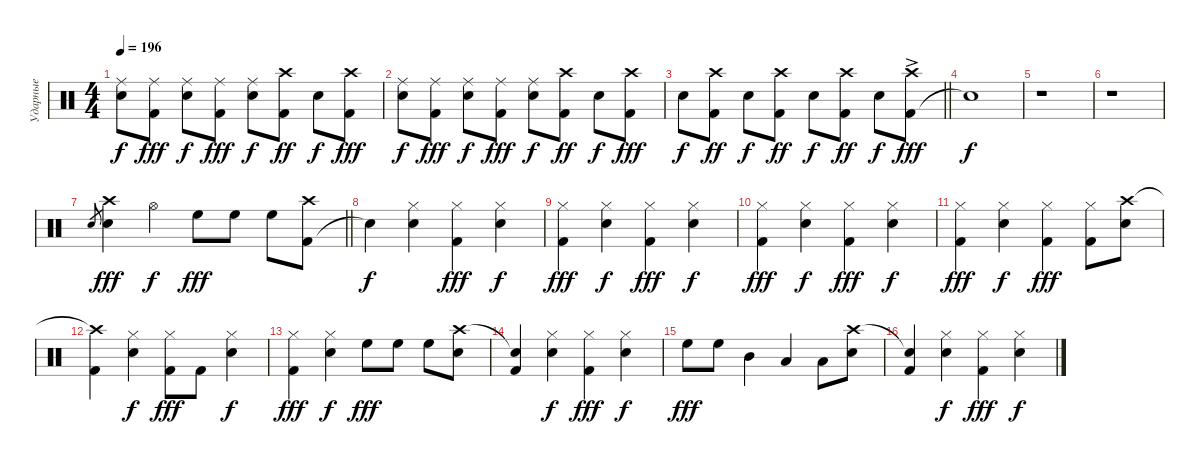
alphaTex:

\track ("Ударные" "Ударные") {instrument percussion}
\staff {score}
\articulation defaults
\ts (4 4)
\tempo 196
\clef neutral
\ks c
("Snare (hit) 2" "Ride (middle)").8{dy f} ("Kick (hit) 2" "Ride (middle)").8{dy fff} ("Snare (hit) 2" "Ride (middle)").8{dy f} ("Kick (hit) 2" "Ride (middle)").8{dy fff} ("Snare (hit) 2" "Ride (middle)").8{dy f} ("Kick (hit) 2" "Crash high (hit)").8{dy ff} "Snare (hit) 2".8{dy f} ("Kick (hit) 2" "Crash high (hit)").8{dy fff} |
("Snare (hit) 2" "Ride (middle)").8{dy f} ("Kick (hit) 2" "Ride (middle)").8{dy fff} ("Snare (hit) 2" "Ride (middle)").8{dy f} ("Kick (hit) 2" "Ride (middle)").8{dy fff} ("Snare (hit) 2" "Ride (middle)").8{dy f} ("Kick (hit) 2" "Crash high (hit)").8{dy ff} "Snare (hit) 2".8{dy f} ("Kick (hit) 2" "Crash high (hit)").8{dy fff} |
\barLineRight lightlight "Snare (hit) 2".8{dy f}
("Kick (hit) 2" "Crash high (hit)").8{dy ff} "Snare (hit) 2".8{dy f} ("Kick (hit) 2" "Crash high (hit)").8{dy ff} "Snare (hit) 2".8{dy f} ("Kick (hit) 2" "Crash high (hit)").8{dy ff} "Snare (hit) 2".8{dy f} ("Kick (hit) 2" "Crash high (hit)"{ac}).8{dy fff} |
"Snare (hit) 2"{t}.1{dy f} |
r.1 |
r.1 |
\barLineRight lightlight "Snare (hit) 2".8{gr}
("Snare (hit) 2" "Crash high (hit)").4{dy fff} "Hi-Hat (open)".4{dy f} "High Floor Tom (hit)".8{dy fff} "High Floor Tom (hit)".8 "High Floor Tom (hit)".8 ("Kick (hit) 2" "Crash high (hit)").8 |
"Snare (hit)"{t}.4{dy f} ("Snare (hit) 2" "Hi-Hat (closed)").4 ("Kick (hit) 2" "Hi-Hat (closed)").4{dy fff} ("Snare (hit) 2" "Hi-Hat (closed)").4{dy f} |
("Kick (hit) 2" "Hi-Hat (closed)").4{dy fff} ("Snare (hit) 2" "Hi-Hat (closed)").4{dy f} ("Kick (hit) 2" "Hi-Hat (closed)").4{dy fff} ("Snare (hit) 2" "Hi-Hat (closed)").4{dy f} |
("Kick (hit) 2" "Hi-Hat (closed)").4{dy fff} ("Snare (hit) 2" "Hi-Hat (closed)").4{dy f} ("Kick (hit) 2" "Hi-Hat (closed)").4{dy fff} ("Snare (hit) 2" "Hi-Hat (closed)").4{dy f} |
("Kick (hit) 2" "Hi-Hat (closed)").4{dy fff} ("Snare (hit) 2" "Hi-Hat (closed)").4{dy f} ("Kick (hit) 2" "Hi-Hat (closed)").4{dy fff} ("Kick (hit) 2" "Hi-Hat (closed)").8 ("Snare (hit) 2" "Crash high (hit)").8 |
("Kick (hit) 2" "Crash high (hit)"{t}).4 ("Snare (hit) 2" "Hi-Hat (closed)").4{dy f} ("Kick (hit) 2" "Hi-Hat (closed)").8{dy fff} "Kick (hit) 2".8 ("Snare (hit) 2" "Hi-Hat (closed)").4{dy f} |
("Kick (hit) 2" "Hi-Hat (closed)").4{dy fff} ("Snare (hit) 2" "Hi-Hat (closed)").4{dy f} "High Floor Tom (hit)".8{dy fff} "High Floor Tom (hit)".8 "High Floor Tom (hit)".8 ("Snare (hit) 2" "Crash high (hit)").8 |
("Kick (hit) 2" "Snare (hit)"{t}).4 ("Snare (hit) 2" "Hi-Hat (closed)").4{dy f} ("Kick (hit) 2" "Hi-Hat (closed)").4{dy fff} ("Snare (hit) 2" "Hi-Hat (closed)").4{dy f} |
"High Floor Tom (hit)".8{dy fff} "High Floor Tom (hit)".8 "Mid Tom (hit)".4 "Low Tom (hit)".4 "Low Tom (hit)".8 ("Snare (hit) 2" "Crash high (hit)").8 |
("Kick (hit) 2" "Snare (hit)"{t}).4 ("Snare (hit) 2" "Hi-Hat (closed)").4{dy f} ("Kick (hit) 2" "Hi-Hat (closed)").4{dy fff} ("Snare (hit) 2" "Hi-Hat (closed)").4{dy f}
